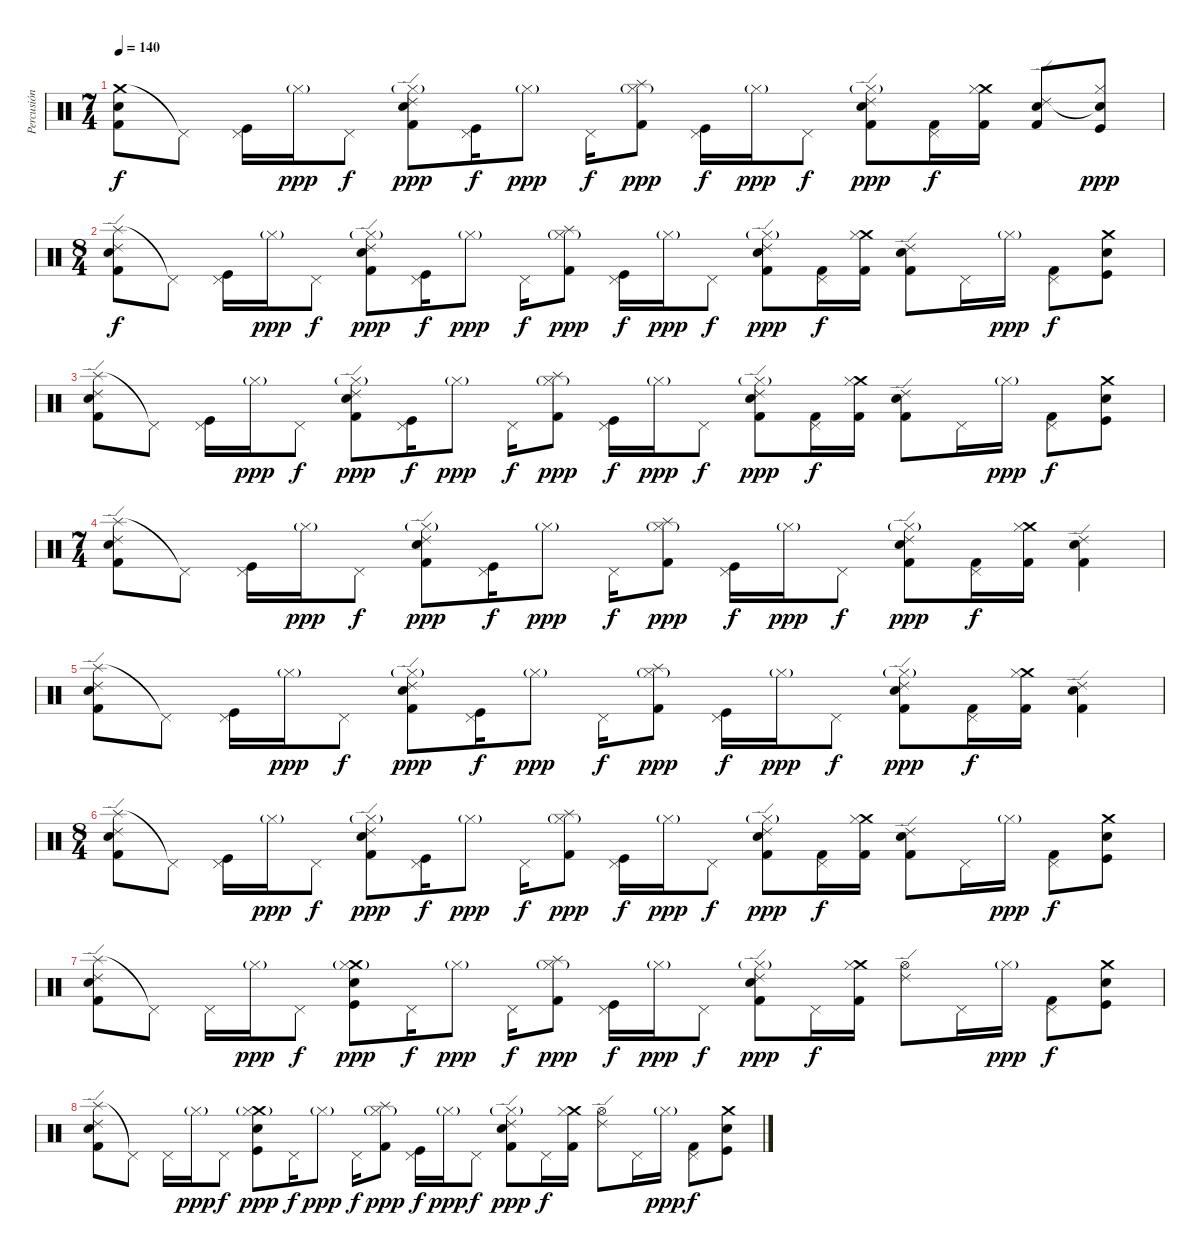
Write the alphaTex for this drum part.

\track ("Percusión" "Percusión") {instrument percussion}
\staff {score}
\articulation defaults
\ts (7 4)
\tempo 140
\clef neutral
\ks c
("Crash medium (hit)" "Electric Snare (hit)" "Kick (hit) 2").8{dy f} "Pedal Hi-Hat (hit)"{t}.8 ("Pedal Hi-Hat (hit)" "Kick (hit)").16 "Hi-Hat (closed)"{g}.16{dy ppp} "Pedal Hi-Hat (hit)".8{dy f} ("Ride (edge) 2" "Electric Snare (hit)" "Hi-Hat (closed)"{g} "Kick (hit) 2").8{dy ppp} ("Pedal Hi-Hat (hit)" "Kick (hit)").16{dy f} "Hi-Hat (closed)"{g}.8{dy ppp} "Pedal Hi-Hat (hit)".16{dy f} ("Splash (hit)" "Hi-Hat (closed)"{g} "Kick (hit) 2").8{dy ppp} ("Pedal Hi-Hat (hit)" "Kick (hit)").16{dy f} "Hi-Hat (closed)"{g}.16{dy ppp} "Pedal Hi-Hat (hit)".8{dy f} ("Ride (edge) 2" "Electric Snare (hit)" "Hi-Hat (closed)"{g} "Kick (hit) 2").8{dy ppp} ("Pedal Hi-Hat (hit)" "Kick (hit) 2").16{dy f} ("Crash medium (hit)" "Hi-Hat (closed)" "Kick (hit) 2").16 ("Ride (edge) 2" "Electric Snare (hit)" "Kick (hit) 2").8 ("Snare (hit)"{t} "Hi-Hat (closed)" "Kick (hit)").8{dy ppp} |
\ts (8 4)
("Splash (hit)" "Ride (edge) 2" "Electric Snare (hit)" "Kick (hit) 2").8{dy f} "Pedal Hi-Hat (hit)"{t}.8 ("Pedal Hi-Hat (hit)" "Kick (hit)").16 "Hi-Hat (closed)"{g}.16{dy ppp} "Pedal Hi-Hat (hit)".8{dy f} ("Ride (edge) 2" "Electric Snare (hit)" "Hi-Hat (closed)"{g} "Kick (hit) 2").8{dy ppp} ("Pedal Hi-Hat (hit)" "Kick (hit)").16{dy f} "Hi-Hat (closed)"{g}.8{dy ppp} "Pedal Hi-Hat (hit)".16{dy f} ("Splash (hit)" "Hi-Hat (closed)"{g} "Kick (hit) 2").8{dy ppp} ("Pedal Hi-Hat (hit)" "Kick (hit)").16{dy f} "Hi-Hat (closed)"{g}.16{dy ppp} "Pedal Hi-Hat (hit)".8{dy f} ("Ride (edge) 2" "Electric Snare (hit)" "Hi-Hat (closed)"{g} "Kick (hit) 2").8{dy ppp} ("Pedal Hi-Hat (hit)" "Kick (hit) 2").16{dy f} ("Crash medium (hit)" "Hi-Hat (closed)" "Kick (hit) 2").16 ("Ride (edge) 2" "Electric Snare (hit)" "Kick (hit) 2").8 "Pedal Hi-Hat (hit)".16 "Hi-Hat (closed)"{g}.16{dy ppp} ("Pedal Hi-Hat (hit)" "Kick (hit) 2").8{dy f} ("Crash medium (hit)" "Electric Snare (hit)" "Kick (hit)").8 |
("Splash (hit)" "Ride (edge) 2" "Electric Snare (hit)" "Kick (hit) 2").8 "Pedal Hi-Hat (hit)"{t}.8 ("Pedal Hi-Hat (hit)" "Kick (hit)").16 "Hi-Hat (closed)"{g}.16{dy ppp} "Pedal Hi-Hat (hit)".8{dy f} ("Ride (edge) 2" "Electric Snare (hit)" "Hi-Hat (closed)"{g} "Kick (hit) 2").8{dy ppp} ("Pedal Hi-Hat (hit)" "Kick (hit)").16{dy f} "Hi-Hat (closed)"{g}.8{dy ppp} "Pedal Hi-Hat (hit)".16{dy f} ("Splash (hit)" "Hi-Hat (closed)"{g} "Kick (hit) 2").8{dy ppp} ("Pedal Hi-Hat (hit)" "Kick (hit)").16{dy f} "Hi-Hat (closed)"{g}.16{dy ppp} "Pedal Hi-Hat (hit)".8{dy f} ("Ride (edge) 2" "Electric Snare (hit)" "Hi-Hat (closed)"{g} "Kick (hit) 2").8{dy ppp} ("Pedal Hi-Hat (hit)" "Kick (hit) 2").16{dy f} ("Crash medium (hit)" "Hi-Hat (closed)" "Kick (hit) 2").16 ("Ride (edge) 2" "Electric Snare (hit)" "Kick (hit) 2").8 "Pedal Hi-Hat (hit)".16 "Hi-Hat (closed)"{g}.16{dy ppp} ("Pedal Hi-Hat (hit)" "Kick (hit) 2").8{dy f} ("Crash medium (hit)" "Electric Snare (hit)" "Kick (hit)").8 |
\ts (7 4)
("Splash (hit)" "Ride (edge) 2" "Electric Snare (hit)" "Kick (hit) 2").8 "Pedal Hi-Hat (hit)"{t}.8 ("Pedal Hi-Hat (hit)" "Kick (hit)").16 "Hi-Hat (closed)"{g}.16{dy ppp} "Pedal Hi-Hat (hit)".8{dy f} ("Ride (edge) 2" "Electric Snare (hit)" "Hi-Hat (closed)"{g} "Kick (hit) 2").8{dy ppp} ("Pedal Hi-Hat (hit)" "Kick (hit)").16{dy f} "Hi-Hat (closed)"{g}.8{dy ppp} "Pedal Hi-Hat (hit)".16{dy f} ("Splash (hit)" "Hi-Hat (closed)"{g} "Kick (hit) 2").8{dy ppp} ("Pedal Hi-Hat (hit)" "Kick (hit)").16{dy f} "Hi-Hat (closed)"{g}.16{dy ppp} "Pedal Hi-Hat (hit)".8{dy f} ("Ride (edge) 2" "Electric Snare (hit)" "Hi-Hat (closed)"{g} "Kick (hit) 2").8{dy ppp} ("Pedal Hi-Hat (hit)" "Kick (hit) 2").16{dy f} ("Crash medium (hit)" "Hi-Hat (closed)" "Kick (hit) 2").16 ("Ride (edge) 2" "Electric Snare (hit)" "Kick (hit) 2").4 |
("Splash (hit)" "Ride (edge) 2" "Electric Snare (hit)" "Kick (hit) 2").8 "Pedal Hi-Hat (hit)"{t}.8 ("Pedal Hi-Hat (hit)" "Kick (hit)").16 "Hi-Hat (closed)"{g}.16{dy ppp} "Pedal Hi-Hat (hit)".8{dy f} ("Ride (edge) 2" "Electric Snare (hit)" "Hi-Hat (closed)"{g} "Kick (hit) 2").8{dy ppp} ("Pedal Hi-Hat (hit)" "Kick (hit)").16{dy f} "Hi-Hat (closed)"{g}.8{dy ppp} "Pedal Hi-Hat (hit)".16{dy f} ("Splash (hit)" "Hi-Hat (closed)"{g} "Kick (hit) 2").8{dy ppp} ("Pedal Hi-Hat (hit)" "Kick (hit)").16{dy f} "Hi-Hat (closed)"{g}.16{dy ppp} "Pedal Hi-Hat (hit)".8{dy f} ("Ride (edge) 2" "Electric Snare (hit)" "Hi-Hat (closed)"{g} "Kick (hit) 2").8{dy ppp} ("Pedal Hi-Hat (hit)" "Kick (hit) 2").16{dy f} ("Crash medium (hit)" "Hi-Hat (closed)" "Kick (hit) 2").16 ("Ride (edge) 2" "Electric Snare (hit)" "Kick (hit) 2").4 |
\ts (8 4)
("Splash (hit)" "Ride (edge) 2" "Electric Snare (hit)" "Kick (hit) 2").8 "Pedal Hi-Hat (hit)"{t}.8 ("Pedal Hi-Hat (hit)" "Kick (hit)").16 "Hi-Hat (closed)"{g}.16{dy ppp} "Pedal Hi-Hat (hit)".8{dy f} ("Ride (edge) 2" "Electric Snare (hit)" "Hi-Hat (closed)"{g} "Kick (hit) 2").8{dy ppp} ("Pedal Hi-Hat (hit)" "Kick (hit)").16{dy f} "Hi-Hat (closed)"{g}.8{dy ppp} "Pedal Hi-Hat (hit)".16{dy f} ("Splash (hit)" "Hi-Hat (closed)"{g} "Kick (hit) 2").8{dy ppp} ("Pedal Hi-Hat (hit)" "Kick (hit)").16{dy f} "Hi-Hat (closed)"{g}.16{dy ppp} "Pedal Hi-Hat (hit)".8{dy f} ("Ride (edge) 2" "Electric Snare (hit)" "Hi-Hat (closed)"{g} "Kick (hit) 2").8{dy ppp} ("Pedal Hi-Hat (hit)" "Kick (hit) 2").16{dy f} ("Crash medium (hit)" "Hi-Hat (closed)" "Kick (hit) 2").16 ("Ride (edge) 2" "Electric Snare (hit)" "Kick (hit) 2").8 "Pedal Hi-Hat (hit)".16 "Hi-Hat (closed)"{g}.16{dy ppp} ("Pedal Hi-Hat (hit)" "Kick (hit) 2").8{dy f} ("Crash medium (hit)" "Electric Snare (hit)" "Kick (hit)").8 |
("Splash (hit)" "Ride (edge) 2" "Electric Snare (hit)" "Kick (hit) 2").8 "Pedal Hi-Hat (hit)"{t}.8 "Pedal Hi-Hat (hit)".16 "Hi-Hat (closed)"{g}.16{dy ppp} "Pedal Hi-Hat (hit)".8{dy f} ("Crash medium (hit)" "Snare (hit) 2" "Hi-Hat (closed)"{g} "Kick (hit)").8{dy ppp} "Pedal Hi-Hat (hit)".16{dy f} "Hi-Hat (closed)"{g}.8{dy ppp} "Pedal Hi-Hat (hit)".16{dy f} ("Splash (hit)" "Hi-Hat (closed)"{g} "Kick (hit) 2").8{dy ppp} ("Pedal Hi-Hat (hit)" "Kick (hit)").16{dy f} "Hi-Hat (closed)"{g}.16{dy ppp} "Pedal Hi-Hat (hit)".8{dy f} ("Ride (edge) 2" "Electric Snare (hit)" "Hi-Hat (closed)"{g} "Kick (hit) 2").8{dy ppp} "Pedal Hi-Hat (hit)".16{dy f} ("Crash medium (hit)" "Hi-Hat (closed)" "Kick (hit) 2").16 ("Ride (edge) 2" "Hi-Hat (open)").8 "Pedal Hi-Hat (hit)".16 "Hi-Hat (closed)"{g}.16{dy ppp} ("Pedal Hi-Hat (hit)" "Kick (hit) 2").8{dy f} ("Crash medium (hit)" "Electric Snare (hit)" "Kick (hit)").8 |
("Splash (hit)" "Ride (edge) 2" "Electric Snare (hit)" "Kick (hit) 2").8 "Pedal Hi-Hat (hit)"{t}.8 "Pedal Hi-Hat (hit)".16 "Hi-Hat (closed)"{g}.16{dy ppp} "Pedal Hi-Hat (hit)".8{dy f} ("Crash medium (hit)" "Snare (hit) 2" "Hi-Hat (closed)"{g} "Kick (hit)").8{dy ppp} "Pedal Hi-Hat (hit)".16{dy f} "Hi-Hat (closed)"{g}.8{dy ppp} "Pedal Hi-Hat (hit)".16{dy f} ("Splash (hit)" "Hi-Hat (closed)"{g} "Kick (hit) 2").8{dy ppp} ("Pedal Hi-Hat (hit)" "Kick (hit)").16{dy f} "Hi-Hat (closed)"{g}.16{dy ppp} "Pedal Hi-Hat (hit)".8{dy f} ("Ride (edge) 2" "Electric Snare (hit)" "Hi-Hat (closed)"{g} "Kick (hit) 2").8{dy ppp} "Pedal Hi-Hat (hit)".16{dy f} ("Crash medium (hit)" "Hi-Hat (closed)" "Kick (hit) 2").16 ("Ride (edge) 2" "Hi-Hat (open)").8 "Pedal Hi-Hat (hit)".16 "Hi-Hat (closed)"{g}.16{dy ppp} ("Pedal Hi-Hat (hit)" "Kick (hit) 2").8{dy f} ("Crash medium (hit)" "Electric Snare (hit)" "Kick (hit)").8
